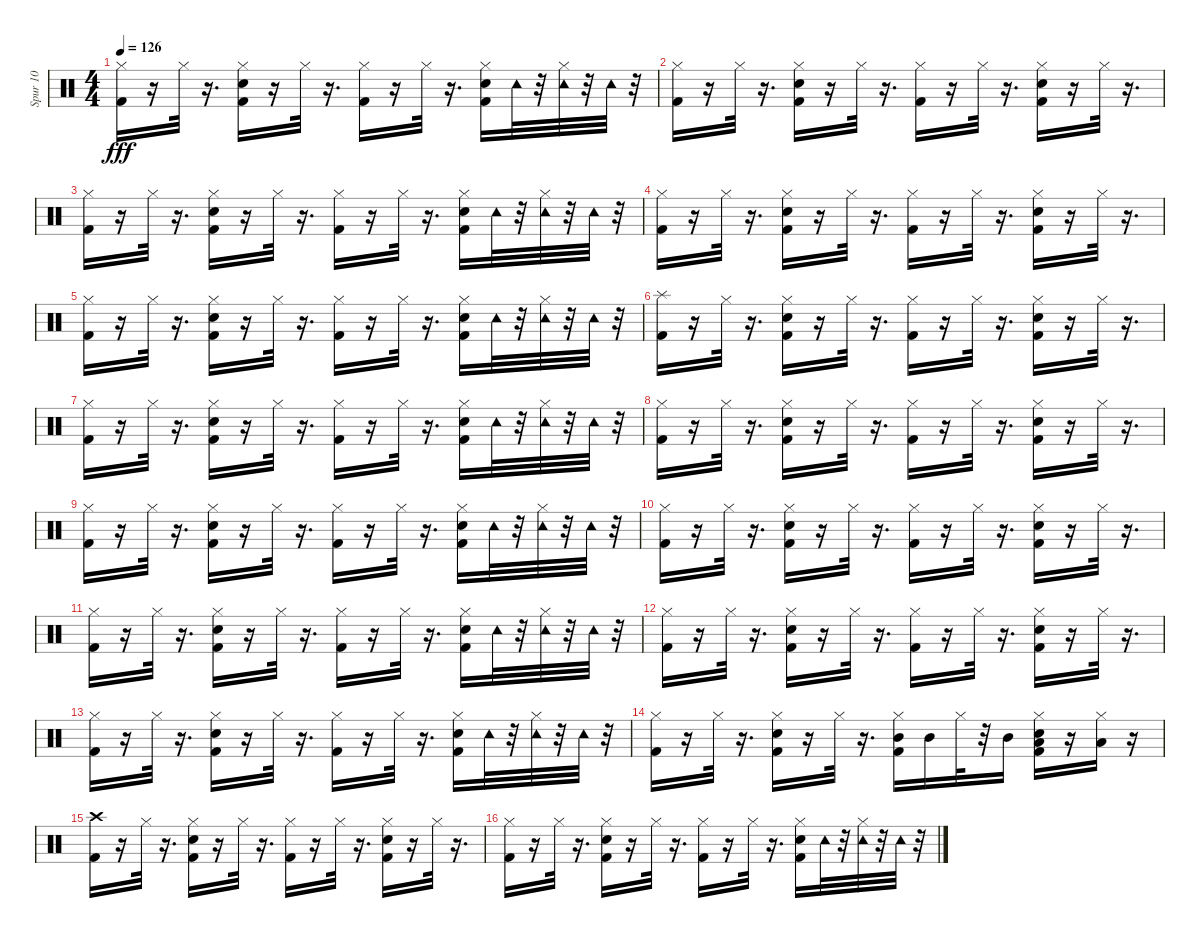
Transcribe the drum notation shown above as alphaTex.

\track ("Spur 10" "Spur 10") {instrument percussion}
\staff {score}
\articulation defaults
\ts (4 4)
\tempo 126
\clef neutral
\ks c
("Hi-Hat (closed)" "Kick (hit) 2").16{dy fff} r.16 "Hi-Hat (closed)".32 r.16{d} ("Hi-Hat (closed)" "Snare (hit) 2" "Kick (hit) 2").16 r.16 "Hi-Hat (closed)".32 r.16{d} ("Hi-Hat (closed)" "Kick (hit) 2").16 r.16 "Hi-Hat (closed)".32 r.16{d} ("Hi-Hat (closed)" "Snare (hit) 2" "Kick (hit) 2").16 "Tambourine (hit)".32 r.32 ("Hi-Hat (closed)" "Tambourine (hit)").32 r.32 "Tambourine (hit)".32 r.32 |
("Hi-Hat (closed)" "Kick (hit) 2").16 r.16 "Hi-Hat (closed)".32 r.16{d} ("Hi-Hat (closed)" "Kick (hit) 2" "Snare (hit) 2").16 r.16 "Hi-Hat (closed)".32 r.16{d} ("Hi-Hat (closed)" "Kick (hit) 2").16 r.16 "Hi-Hat (closed)".32 r.16{d} ("Hi-Hat (closed)" "Snare (hit) 2" "Kick (hit) 2").16 r.16 "Hi-Hat (closed)".32 r.16{d} |
("Hi-Hat (closed)" "Kick (hit) 2").16 r.16 "Hi-Hat (closed)".32 r.16{d} ("Hi-Hat (closed)" "Snare (hit) 2" "Kick (hit) 2").16 r.16 "Hi-Hat (closed)".32 r.16{d} ("Hi-Hat (closed)" "Kick (hit) 2").16 r.16 "Hi-Hat (closed)".32 r.16{d} ("Hi-Hat (closed)" "Snare (hit) 2" "Kick (hit) 2").16 "Tambourine (hit)".32 r.32 ("Hi-Hat (closed)" "Tambourine (hit)").32 r.32 "Tambourine (hit)".32 r.32 |
("Hi-Hat (closed)" "Kick (hit) 2").16 r.16 "Hi-Hat (closed)".32 r.16{d} ("Hi-Hat (closed)" "Kick (hit) 2" "Snare (hit) 2").16 r.16 "Hi-Hat (closed)".32 r.16{d} ("Hi-Hat (closed)" "Kick (hit) 2").16 r.16 "Hi-Hat (closed)".32 r.16{d} ("Hi-Hat (closed)" "Snare (hit) 2" "Kick (hit) 2").16 r.16 "Hi-Hat (closed)".32 r.16{d} |
("Hi-Hat (closed)" "Kick (hit) 2").16 r.16 "Hi-Hat (closed)".32 r.16{d} ("Hi-Hat (closed)" "Snare (hit) 2" "Kick (hit) 2").16 r.16 "Hi-Hat (closed)".32 r.16{d} ("Hi-Hat (closed)" "Kick (hit) 2").16 r.16 "Hi-Hat (closed)".32 r.16{d} ("Hi-Hat (closed)" "Snare (hit) 2" "Kick (hit) 2").16 "Tambourine (hit)".32 r.32 ("Hi-Hat (closed)" "Tambourine (hit)").32 r.32 "Tambourine (hit)".32 r.32 |
("Splash (hit)" "Kick (hit) 2").16 r.16 "Hi-Hat (closed)".32 r.16{d} ("Hi-Hat (closed)" "Kick (hit) 2" "Snare (hit) 2").16 r.16 "Hi-Hat (closed)".32 r.16{d} ("Hi-Hat (closed)" "Kick (hit) 2").16 r.16 "Hi-Hat (closed)".32 r.16{d} ("Hi-Hat (closed)" "Snare (hit) 2" "Kick (hit) 2").16 r.16 "Hi-Hat (closed)".32 r.16{d} |
("Hi-Hat (closed)" "Kick (hit) 2").16 r.16 "Hi-Hat (closed)".32 r.16{d} ("Hi-Hat (closed)" "Snare (hit) 2" "Kick (hit) 2").16 r.16 "Hi-Hat (closed)".32 r.16{d} ("Hi-Hat (closed)" "Kick (hit) 2").16 r.16 "Hi-Hat (closed)".32 r.16{d} ("Hi-Hat (closed)" "Snare (hit) 2" "Kick (hit) 2").16 "Tambourine (hit)".32 r.32 ("Hi-Hat (closed)" "Tambourine (hit)").32 r.32 "Tambourine (hit)".32 r.32 |
("Hi-Hat (closed)" "Kick (hit) 2").16 r.16 "Hi-Hat (closed)".32 r.16{d} ("Hi-Hat (closed)" "Kick (hit) 2" "Snare (hit) 2").16 r.16 "Hi-Hat (closed)".32 r.16{d} ("Hi-Hat (closed)" "Kick (hit) 2").16 r.16 "Hi-Hat (closed)".32 r.16{d} ("Hi-Hat (closed)" "Snare (hit) 2" "Kick (hit) 2").16 r.16 "Hi-Hat (closed)".32 r.16{d} |
("Hi-Hat (closed)" "Kick (hit) 2").16 r.16 "Hi-Hat (closed)".32 r.16{d} ("Hi-Hat (closed)" "Snare (hit) 2" "Kick (hit) 2").16 r.16 "Hi-Hat (closed)".32 r.16{d} ("Hi-Hat (closed)" "Kick (hit) 2").16 r.16 "Hi-Hat (closed)".32 r.16{d} ("Hi-Hat (closed)" "Snare (hit) 2" "Kick (hit) 2").16 "Tambourine (hit)".32 r.32 ("Hi-Hat (closed)" "Tambourine (hit)").32 r.32 "Tambourine (hit)".32 r.32 |
("Hi-Hat (closed)" "Kick (hit) 2").16 r.16 "Hi-Hat (closed)".32 r.16{d} ("Hi-Hat (closed)" "Kick (hit) 2" "Snare (hit) 2").16 r.16 "Hi-Hat (closed)".32 r.16{d} ("Hi-Hat (closed)" "Kick (hit) 2").16 r.16 "Hi-Hat (closed)".32 r.16{d} ("Hi-Hat (closed)" "Snare (hit) 2" "Kick (hit) 2").16 r.16 "Hi-Hat (closed)".32 r.16{d} |
("Hi-Hat (closed)" "Kick (hit) 2").16 r.16 "Hi-Hat (closed)".32 r.16{d} ("Hi-Hat (closed)" "Snare (hit) 2" "Kick (hit) 2").16 r.16 "Hi-Hat (closed)".32 r.16{d} ("Hi-Hat (closed)" "Kick (hit) 2").16 r.16 "Hi-Hat (closed)".32 r.16{d} ("Hi-Hat (closed)" "Snare (hit) 2" "Kick (hit) 2").16 "Tambourine (hit)".32 r.32 ("Hi-Hat (closed)" "Tambourine (hit)").32 r.32 "Tambourine (hit)".32 r.32 |
("Hi-Hat (closed)" "Kick (hit) 2").16 r.16 "Hi-Hat (closed)".32 r.16{d} ("Hi-Hat (closed)" "Kick (hit) 2" "Snare (hit) 2").16 r.16 "Hi-Hat (closed)".32 r.16{d} ("Hi-Hat (closed)" "Kick (hit) 2").16 r.16 "Hi-Hat (closed)".32 r.16{d} ("Hi-Hat (closed)" "Snare (hit) 2" "Kick (hit) 2").16 r.16 "Hi-Hat (closed)".32 r.16{d} |
("Hi-Hat (closed)" "Kick (hit) 2").16 r.16 "Hi-Hat (closed)".32 r.16{d} ("Hi-Hat (closed)" "Snare (hit) 2" "Kick (hit) 2").16 r.16 "Hi-Hat (closed)".32 r.16{d} ("Hi-Hat (closed)" "Kick (hit) 2").16 r.16 "Hi-Hat (closed)".32 r.16{d} ("Hi-Hat (closed)" "Snare (hit) 2" "Kick (hit) 2").16 "Tambourine (hit)".32 r.32 ("Hi-Hat (closed)" "Tambourine (hit)").32 r.32 "Tambourine (hit)".32 r.32 |
("Hi-Hat (closed)" "Kick (hit) 2").16 r.16 "Hi-Hat (closed)".32 r.16{d} ("Hi-Hat (closed)" "Kick (hit) 2" "Snare (hit) 2").16 r.16 "Hi-Hat (closed)".32 r.16{d} ("Hi-Hat (closed)" "Mid Tom (hit)" "Kick (hit) 2").16 "Mid Tom (hit)".16 "Hi-Hat (closed)".32 r.32 "Mid Tom (hit)".16 ("Hi-Hat (closed)" "Low Tom (hit)" "Snare (hit) 2" "Kick (hit) 2").16 r.16 ("Hi-Hat (closed)" "Low Tom (hit)").16 r.16 |
("Crash high (hit)" "Kick (hit) 2").16 r.16 "Hi-Hat (closed)".32 r.16{d} ("Hi-Hat (closed)" "Kick (hit) 2" "Snare (hit) 2").16 r.16 "Hi-Hat (closed)".32 r.16{d} ("Hi-Hat (closed)" "Kick (hit) 2").16 r.16 "Hi-Hat (closed)".32 r.16{d} ("Hi-Hat (closed)" "Snare (hit) 2" "Kick (hit) 2").16 r.16 "Hi-Hat (closed)".32 r.16{d} |
("Hi-Hat (closed)" "Kick (hit) 2").16 r.16 "Hi-Hat (closed)".32 r.16{d} ("Hi-Hat (closed)" "Snare (hit) 2" "Kick (hit) 2").16 r.16 "Hi-Hat (closed)".32 r.16{d} ("Hi-Hat (closed)" "Kick (hit) 2").16 r.16 "Hi-Hat (closed)".32 r.16{d} ("Hi-Hat (closed)" "Snare (hit) 2" "Kick (hit) 2").16 "Tambourine (hit)".32 r.32 ("Hi-Hat (closed)" "Tambourine (hit)").32 r.32 "Tambourine (hit)".32 r.32
